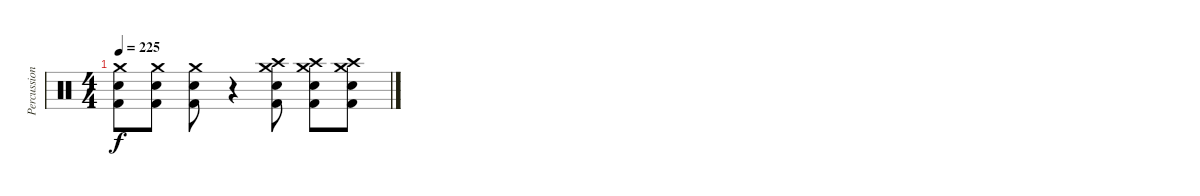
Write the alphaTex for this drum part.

\track ("Percussion" "Percussion") {instrument percussion}
\staff {score}
\articulation defaults
\ts (4 4)
\tempo 225
\clef neutral
\ks c
("Crash medium (hit)" "Electric Snare (hit)" "Kick (hit) 2").8{dy f} ("Crash medium (hit)" "Electric Snare (hit)" "Kick (hit) 2").8 ("Crash medium (hit)" "Electric Snare (hit)" "Kick (hit) 2").8 r.4 ("Crash high (hit)" "Crash medium (hit)" "Electric Snare (hit)" "Kick (hit) 2").8 ("Crash high (hit)" "Crash medium (hit)" "Electric Snare (hit)" "Kick (hit) 2").8 ("Crash high (hit)" "Crash medium (hit)" "Electric Snare (hit)" "Kick (hit) 2").8
